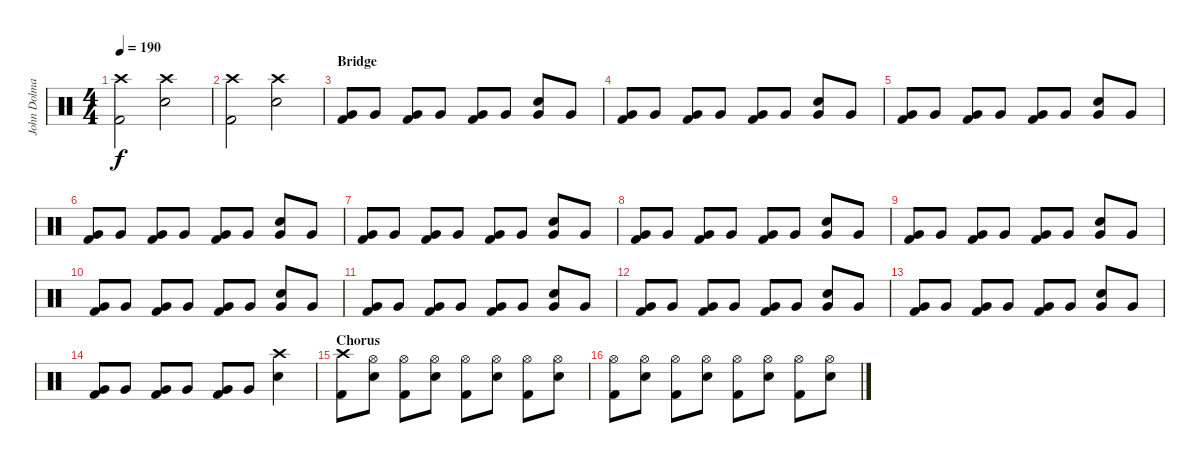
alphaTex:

\track ("John Dolmayan" "John Dolma") {instrument percussion}
\staff {score}
\articulation defaults
\ts (4 4)
\tempo 190
\clef neutral
\ks c
("Crash high (hit)" "Kick (hit) 2").2{dy f} ("Crash high (hit)" "Electric Snare (hit)").2 |
("Crash high (hit)" "Kick (hit) 2").2 ("Crash high (hit)" "Electric Snare (hit)").2 |
\section ("" "Bridge")
("Very Low Tom (hit)" "Kick (hit) 2").8 "Very Low Tom (hit)".8 ("Very Low Tom (hit)" "Kick (hit) 2").8 "Very Low Tom (hit)".8 ("Very Low Tom (hit)" "Kick (hit) 2").8 "Very Low Tom (hit)".8 ("Very Low Tom (hit)" "Electric Snare (hit)").8 "Very Low Tom (hit)".8 |
("Very Low Tom (hit)" "Kick (hit) 2").8 "Very Low Tom (hit)".8 ("Very Low Tom (hit)" "Kick (hit) 2").8 "Very Low Tom (hit)".8 ("Very Low Tom (hit)" "Kick (hit) 2").8 "Very Low Tom (hit)".8 ("Very Low Tom (hit)" "Electric Snare (hit)").8 "Very Low Tom (hit)".8 |
("Very Low Tom (hit)" "Kick (hit) 2").8 "Very Low Tom (hit)".8 ("Very Low Tom (hit)" "Kick (hit) 2").8 "Very Low Tom (hit)".8 ("Very Low Tom (hit)" "Kick (hit) 2").8 "Very Low Tom (hit)".8 ("Very Low Tom (hit)" "Electric Snare (hit)").8 "Very Low Tom (hit)".8 |
("Very Low Tom (hit)" "Kick (hit) 2").8 "Very Low Tom (hit)".8 ("Very Low Tom (hit)" "Kick (hit) 2").8 "Very Low Tom (hit)".8 ("Very Low Tom (hit)" "Kick (hit) 2").8 "Very Low Tom (hit)".8 ("Very Low Tom (hit)" "Electric Snare (hit)").8 "Very Low Tom (hit)".8 |
("Very Low Tom (hit)" "Kick (hit) 2").8 "Very Low Tom (hit)".8 ("Very Low Tom (hit)" "Kick (hit) 2").8 "Very Low Tom (hit)".8 ("Very Low Tom (hit)" "Kick (hit) 2").8 "Very Low Tom (hit)".8 ("Very Low Tom (hit)" "Electric Snare (hit)").8 "Very Low Tom (hit)".8 |
("Very Low Tom (hit)" "Kick (hit) 2").8 "Very Low Tom (hit)".8 ("Very Low Tom (hit)" "Kick (hit) 2").8 "Very Low Tom (hit)".8 ("Very Low Tom (hit)" "Kick (hit) 2").8 "Very Low Tom (hit)".8 ("Very Low Tom (hit)" "Electric Snare (hit)").8 "Very Low Tom (hit)".8 |
("Very Low Tom (hit)" "Kick (hit) 2").8 "Very Low Tom (hit)".8 ("Very Low Tom (hit)" "Kick (hit) 2").8 "Very Low Tom (hit)".8 ("Very Low Tom (hit)" "Kick (hit) 2").8 "Very Low Tom (hit)".8 ("Very Low Tom (hit)" "Electric Snare (hit)").8 "Very Low Tom (hit)".8 |
("Very Low Tom (hit)" "Kick (hit) 2").8 "Very Low Tom (hit)".8 ("Very Low Tom (hit)" "Kick (hit) 2").8 "Very Low Tom (hit)".8 ("Very Low Tom (hit)" "Kick (hit) 2").8 "Very Low Tom (hit)".8 ("Very Low Tom (hit)" "Electric Snare (hit)").8 "Very Low Tom (hit)".8 |
("Very Low Tom (hit)" "Kick (hit) 2").8 "Very Low Tom (hit)".8 ("Very Low Tom (hit)" "Kick (hit) 2").8 "Very Low Tom (hit)".8 ("Very Low Tom (hit)" "Kick (hit) 2").8 "Very Low Tom (hit)".8 ("Very Low Tom (hit)" "Electric Snare (hit)").8 "Very Low Tom (hit)".8 |
("Very Low Tom (hit)" "Kick (hit) 2").8 "Very Low Tom (hit)".8 ("Very Low Tom (hit)" "Kick (hit) 2").8 "Very Low Tom (hit)".8 ("Very Low Tom (hit)" "Kick (hit) 2").8 "Very Low Tom (hit)".8 ("Very Low Tom (hit)" "Electric Snare (hit)").8 "Very Low Tom (hit)".8 |
("Very Low Tom (hit)" "Kick (hit) 2").8 "Very Low Tom (hit)".8 ("Very Low Tom (hit)" "Kick (hit) 2").8 "Very Low Tom (hit)".8 ("Very Low Tom (hit)" "Kick (hit) 2").8 "Very Low Tom (hit)".8 ("Very Low Tom (hit)" "Electric Snare (hit)").8 "Very Low Tom (hit)".8 |
("Very Low Tom (hit)" "Kick (hit) 2").8 "Very Low Tom (hit)".8 ("Very Low Tom (hit)" "Kick (hit) 2").8 "Very Low Tom (hit)".8 ("Very Low Tom (hit)" "Kick (hit) 2").8 "Very Low Tom (hit)".8 ("Crash high (hit)" "Electric Snare (hit)").4 |
\section ("" "Chorus")
("Crash high (hit)" "Kick (hit) 2").8 ("Hi-Hat (open)" "Electric Snare (hit)").8 ("Hi-Hat (open)" "Kick (hit) 2").8 ("Hi-Hat (open)" "Electric Snare (hit)").8 ("Hi-Hat (open)" "Kick (hit) 2").8 ("Hi-Hat (open)" "Electric Snare (hit)").8 ("Hi-Hat (open)" "Kick (hit) 2").8 ("Hi-Hat (open)" "Electric Snare (hit)").8 |
("Hi-Hat (open)" "Kick (hit) 2").8 ("Hi-Hat (open)" "Electric Snare (hit)").8 ("Hi-Hat (open)" "Kick (hit) 2").8 ("Hi-Hat (open)" "Electric Snare (hit)").8 ("Hi-Hat (open)" "Kick (hit) 2").8 ("Hi-Hat (open)" "Electric Snare (hit)").8 ("Hi-Hat (open)" "Kick (hit) 2").8 ("Hi-Hat (open)" "Electric Snare (hit)").8
